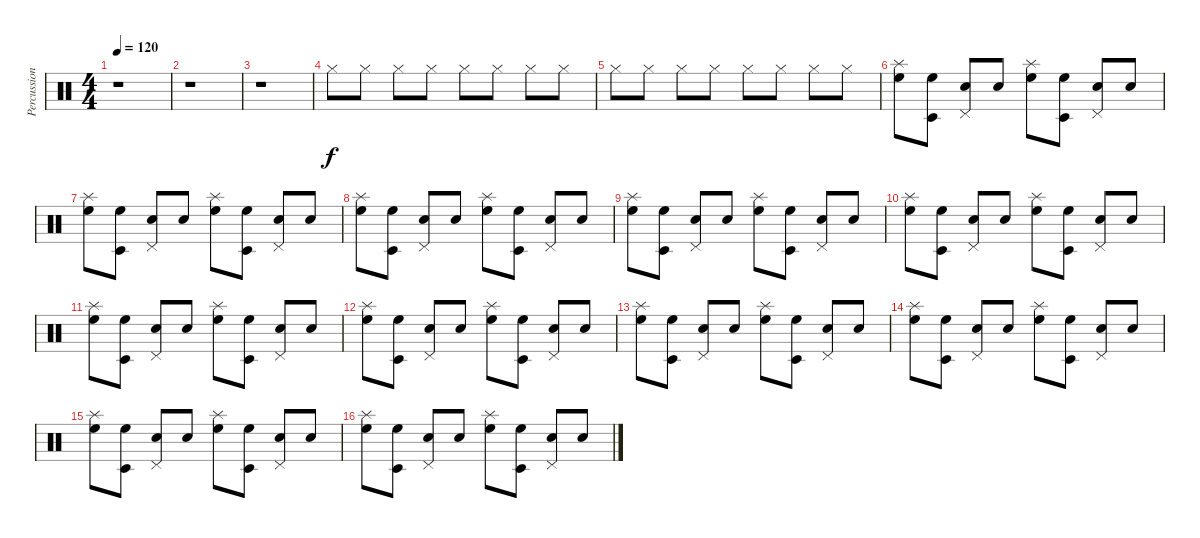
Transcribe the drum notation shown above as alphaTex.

\track ("Percussion" "Percussion") {instrument percussion}
\staff {score}
\articulation defaults
\ts (4 4)
\tempo 120
\clef neutral
\ks c
r.1{dy f} |
r.1 |
r.1 |
"Hi-Hat (closed)".8 "Hi-Hat (closed)".8 "Hi-Hat (closed)".8 "Hi-Hat (closed)".8 "Hi-Hat (closed)".8 "Hi-Hat (closed)".8 "Hi-Hat (closed)".8 "Hi-Hat (closed)".8 |
"Hi-Hat (closed)".8 "Hi-Hat (closed)".8 "Hi-Hat (closed)".8 "Hi-Hat (closed)".8 "Hi-Hat (closed)".8 "Hi-Hat (closed)".8 "Hi-Hat (closed)".8 "Hi-Hat (closed)".8 |
("Splash (hit)" "High Floor Tom (hit)").8 ("Timbale low (hit)" "High Floor Tom (hit)").8 ("Pedal Hi-Hat (hit)" "Electric Snare (hit)").8 "Electric Snare (hit)".8 ("Splash (hit)" "High Floor Tom (hit)").8 ("Timbale low (hit)" "High Floor Tom (hit)").8 ("Pedal Hi-Hat (hit)" "Electric Snare (hit)").8 "Electric Snare (hit)".8 |
("Splash (hit)" "High Floor Tom (hit)").8 ("Timbale low (hit)" "High Floor Tom (hit)").8 ("Pedal Hi-Hat (hit)" "Electric Snare (hit)").8 "Electric Snare (hit)".8 ("Splash (hit)" "High Floor Tom (hit)").8 ("Timbale low (hit)" "High Floor Tom (hit)").8 ("Pedal Hi-Hat (hit)" "Electric Snare (hit)").8 "Electric Snare (hit)".8 |
("Splash (hit)" "High Floor Tom (hit)").8 ("Timbale low (hit)" "High Floor Tom (hit)").8 ("Pedal Hi-Hat (hit)" "Electric Snare (hit)").8 "Electric Snare (hit)".8 ("Splash (hit)" "High Floor Tom (hit)").8 ("Timbale low (hit)" "High Floor Tom (hit)").8 ("Pedal Hi-Hat (hit)" "Electric Snare (hit)").8 "Electric Snare (hit)".8 |
("Splash (hit)" "High Floor Tom (hit)").8 ("Timbale low (hit)" "High Floor Tom (hit)").8 ("Pedal Hi-Hat (hit)" "Electric Snare (hit)").8 "Electric Snare (hit)".8 ("Splash (hit)" "High Floor Tom (hit)").8 ("Timbale low (hit)" "High Floor Tom (hit)").8 ("Pedal Hi-Hat (hit)" "Electric Snare (hit)").8 "Electric Snare (hit)".8 |
("Splash (hit)" "High Floor Tom (hit)").8 ("Timbale low (hit)" "High Floor Tom (hit)").8 ("Pedal Hi-Hat (hit)" "Electric Snare (hit)").8 "Electric Snare (hit)".8 ("Splash (hit)" "High Floor Tom (hit)").8 ("Timbale low (hit)" "High Floor Tom (hit)").8 ("Pedal Hi-Hat (hit)" "Electric Snare (hit)").8 "Electric Snare (hit)".8 |
("Splash (hit)" "High Floor Tom (hit)").8 ("Timbale low (hit)" "High Floor Tom (hit)").8 ("Pedal Hi-Hat (hit)" "Electric Snare (hit)").8 "Electric Snare (hit)".8 ("Splash (hit)" "High Floor Tom (hit)").8 ("Timbale low (hit)" "High Floor Tom (hit)").8 ("Pedal Hi-Hat (hit)" "Electric Snare (hit)").8 "Electric Snare (hit)".8 |
("Splash (hit)" "High Floor Tom (hit)").8 ("Timbale low (hit)" "High Floor Tom (hit)").8 ("Pedal Hi-Hat (hit)" "Electric Snare (hit)").8 "Electric Snare (hit)".8 ("Splash (hit)" "High Floor Tom (hit)").8 ("Timbale low (hit)" "High Floor Tom (hit)").8 ("Pedal Hi-Hat (hit)" "Electric Snare (hit)").8 "Electric Snare (hit)".8 |
("Splash (hit)" "High Floor Tom (hit)").8 ("Timbale low (hit)" "High Floor Tom (hit)").8 ("Pedal Hi-Hat (hit)" "Electric Snare (hit)").8 "Electric Snare (hit)".8 ("Splash (hit)" "High Floor Tom (hit)").8 ("Timbale low (hit)" "High Floor Tom (hit)").8 ("Pedal Hi-Hat (hit)" "Electric Snare (hit)").8 "Electric Snare (hit)".8 |
("Splash (hit)" "High Floor Tom (hit)").8 ("Timbale low (hit)" "High Floor Tom (hit)").8 ("Pedal Hi-Hat (hit)" "Electric Snare (hit)").8 "Electric Snare (hit)".8 ("Splash (hit)" "High Floor Tom (hit)").8 ("Timbale low (hit)" "High Floor Tom (hit)").8 ("Pedal Hi-Hat (hit)" "Electric Snare (hit)").8 "Electric Snare (hit)".8 |
("Splash (hit)" "High Floor Tom (hit)").8 ("Timbale low (hit)" "High Floor Tom (hit)").8 ("Pedal Hi-Hat (hit)" "Electric Snare (hit)").8 "Electric Snare (hit)".8 ("Splash (hit)" "High Floor Tom (hit)").8 ("Timbale low (hit)" "High Floor Tom (hit)").8 ("Pedal Hi-Hat (hit)" "Electric Snare (hit)").8 "Electric Snare (hit)".8 |
("Splash (hit)" "High Floor Tom (hit)").8 ("Timbale low (hit)" "High Floor Tom (hit)").8 ("Pedal Hi-Hat (hit)" "Electric Snare (hit)").8 "Electric Snare (hit)".8 ("Splash (hit)" "High Floor Tom (hit)").8 ("Timbale low (hit)" "High Floor Tom (hit)").8 ("Pedal Hi-Hat (hit)" "Electric Snare (hit)").8 "Electric Snare (hit)".8
